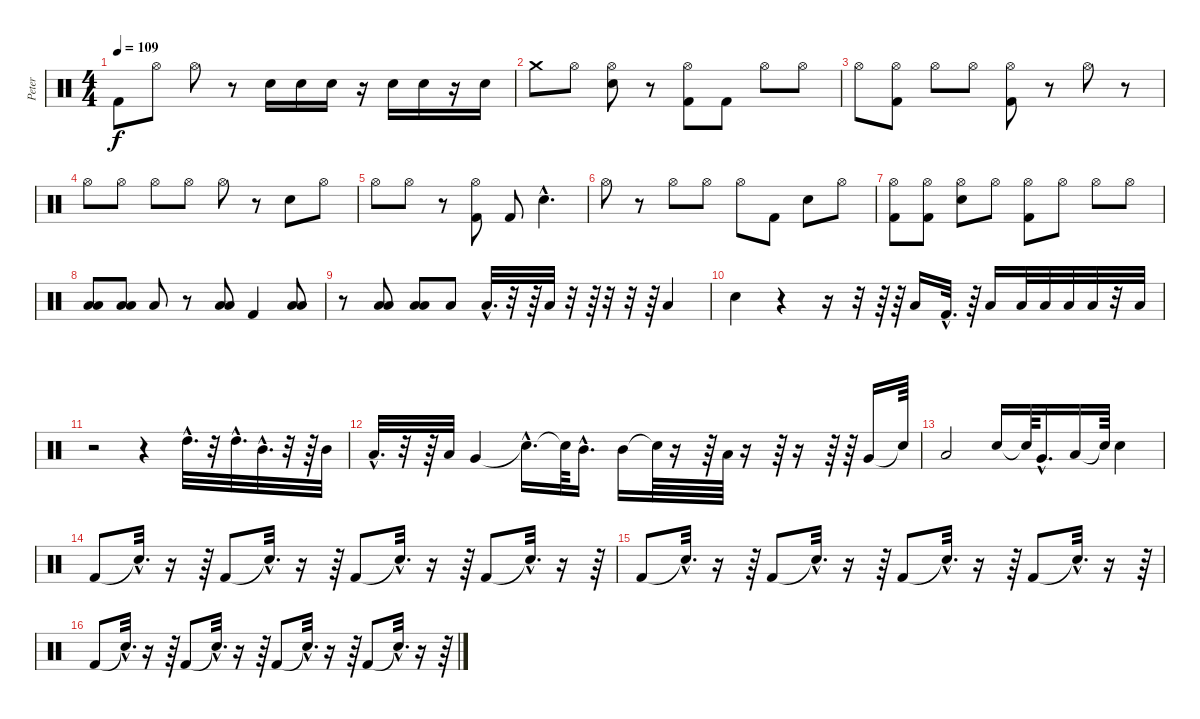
\track ("Peter" "Peter") {instrument percussion}
\staff {score}
\articulation defaults
\ts (4 4)
\tempo 109
\clef neutral
\ks c "Kick (hit) 2".8{dy f} "Hi-Hat (open)".8 "Hi-Hat (open)".8
r.8 "Electric Snare (hit)".16 "Electric Snare (hit)".16 "Electric Snare (hit)".16 r.16 "Electric Snare (hit)".16 "Electric Snare (hit)".16 r.16 "Electric Snare (hit)".16 |
"Crash medium (hit)".8 "Hi-Hat (open)".8 ("Hi-Hat (open)" "Electric Snare (hit)").8 r.8 ("Kick (hit) 2" "Hi-Hat (open)").8 "Kick (hit) 2".8 "Hi-Hat (open)".8 "Hi-Hat (open)".8 |
"Hi-Hat (open)".8 ("Hi-Hat (open)" "Kick (hit) 2").8 "Hi-Hat (open)".8 "Hi-Hat (open)".8 ("Hi-Hat (open)" "Kick (hit) 2").8 r.8 "Hi-Hat (open)".8 r.8 |
"Hi-Hat (open)".8 "Hi-Hat (open)".8 "Hi-Hat (open)".8 "Hi-Hat (open)".8 "Hi-Hat (open)".8 r.8 "Electric Snare (hit)".8 "Hi-Hat (open)".8 |
"Hi-Hat (open)".8 "Hi-Hat (open)".8 r.8 ("Kick (hit) 2" "Hi-Hat (open)").8 "Kick (hit) 2".8 "Electric Snare (hit)"{hac}.4{d} |
"Hi-Hat (open)".8 r.8 "Hi-Hat (open)".8 "Hi-Hat (open)".8 "Hi-Hat (open)".8 "Kick (hit) 2".8 "Electric Snare (hit)".8 "Hi-Hat (open)".8 |
("Kick (hit) 2" "Hi-Hat (open)").8 ("Kick (hit) 2" "Hi-Hat (open)").8 ("Electric Snare (hit)" "Hi-Hat (open)").8 "Hi-Hat (open)".8 ("Hi-Hat (open)" "Kick (hit) 2").8 "Hi-Hat (open)".8 "Hi-Hat (open)".8 "Hi-Hat (open)".8 |
("Low Tom (hit)" "Low Floor Tom (hit)").8 ("Low Floor Tom (hit)" "Low Tom (hit)").8 "Low Tom (hit)".8 r.8 ("Low Floor Tom (hit)" "Low Tom (hit)").8 "Kick (hit) 2".4 ("Low Tom (hit)" "Low Floor Tom (hit)").8 |
r.8 ("Low Floor Tom (hit)" "Low Tom (hit)").8 ("Low Floor Tom (hit)" "Low Tom (hit)").8 "Low Floor Tom (hit)".8 "Low Tom (hit)"{hac}.32{d} r.32 r.64 "Low Tom (hit)".32 r.32 r.64 r.32 r.32 r.64 "Low Tom (hit)".4 |
"Electric Snare (hit)".4 r.4 r.16 r.32 r.64 r.64 "Low Tom (hit)".16 "Kick (hit) 2"{hac}.32{d} r.64 "Low Tom (hit)".16 "Low Tom (hit)".32 "Low Tom (hit)".32 "Low Tom (hit)".32 "Low Tom (hit)".32 r.32 "Low Tom (hit)".32 |
r.2 r.4 "High Tom (hit)"{hac}.32{d} r.32 "High Tom (hit)"{hac}.32{d} "Mid Tom (hit)"{hac}.32{d} r.32 r.64 "Mid Tom (hit)".32 |
"Low Tom (hit)"{hac}.32{d} r.32 r.64 "Low Tom (hit)".32 "Very Low Tom (hit)".4 "Snare (hit)"{hac t}.16{d} "Snare (hit)"{t}.64 "Mid Tom (hit)"{hac}.16{d} "Mid Tom (hit)".16 "Snare (hit)"{t}.64 r.16 r.64 "Low Tom (hit)".64 r.16 r.64 r.16 r.64 r.64 "Very Low Tom (hit)".16 "Snare (hit)"{t}.64 |
"Low Floor Tom (hit)".2 "Electric Snare (hit)".16 "Snare (hit)"{t}.64 "Very Low Tom (hit)"{hac}.16{d} "Low Floor Tom (hit)".16 "Snare (hit)"{t}.64 "Electric Snare (hit)".4 |
"Kick (hit) 2".8 "Snare (hit)"{hac t}.32{d} r.16 r.64 "Kick (hit) 2".8 "Snare (hit)"{hac t}.32{d} r.16 r.64 "Kick (hit) 2".8 "Snare (hit)"{hac t}.32{d} r.16 r.64 "Kick (hit) 2".8 "Snare (hit)"{hac t}.32{d} r.16 r.64 |
"Kick (hit) 2".8 "Snare (hit)"{hac t}.32{d} r.16 r.64 "Kick (hit) 2".8 "Snare (hit)"{hac t}.32{d} r.16 r.64 "Kick (hit) 2".8 "Snare (hit)"{hac t}.32{d} r.16 r.64 "Kick (hit) 2".8 "Snare (hit)"{hac t}.32{d} r.16 r.64 |
"Kick (hit) 2".8 "Snare (hit)"{hac t}.32{d} r.16 r.64 "Kick (hit) 2".8 "Snare (hit)"{hac t}.32{d} r.16 r.64 "Kick (hit) 2".8 "Snare (hit)"{hac t}.32{d} r.16 r.64 "Kick (hit) 2".8 "Snare (hit)"{hac t}.32{d} r.16 r.64
